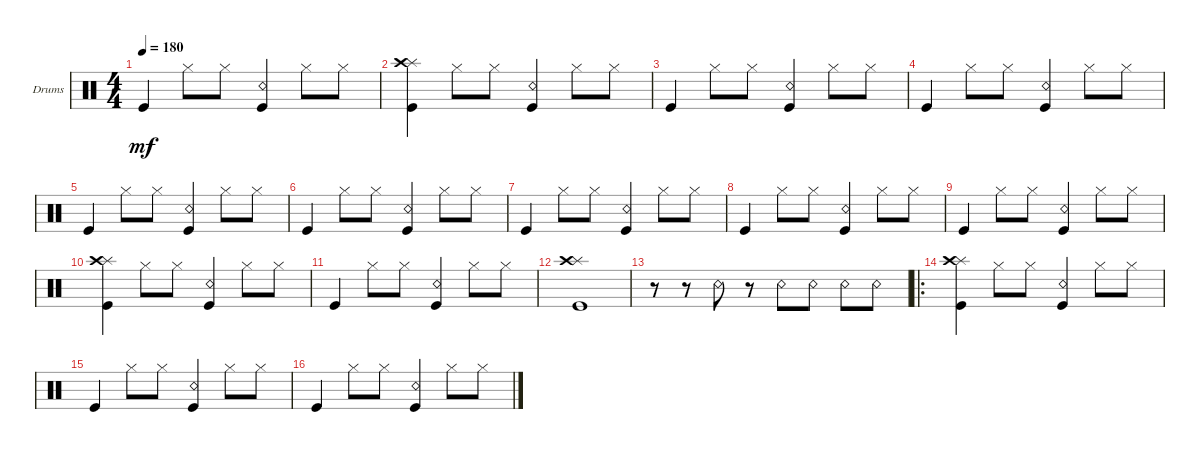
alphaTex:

\defaultSystemsLayout 4
\bracketExtendMode groupsimilarinstruments
\firstSystemTrackNameOrientation horizontal
\otherSystemsTrackNameOrientation horizontal
\track ("Drumkit" "Drums") {instrument percussion}
\staff {score}
\articulation defaults
\ts (4 4)
\tempo 180
\clef neutral
\scale
0.333333
\ks c "Kick (hit)".4{dy mf} "Hi-Hat (closed)".8 "Hi-Hat (closed)".8
("Snare (rim shot)" "Kick (hit)").4 "Hi-Hat (closed)".8 "Hi-Hat (closed)".8 |
\scale
0.333333 ("Kick (hit)" "Splash (hit)" "Crash high (hit)").4 "Hi-Hat (closed)".8 "Hi-Hat (closed)".8 ("Snare (rim shot)" "Kick (hit)").4 "Hi-Hat (closed)".8 "Hi-Hat (closed)".8 |
\scale
0.333333 "Kick (hit)".4 "Hi-Hat (closed)".8 "Hi-Hat (closed)".8 ("Snare (rim shot)" "Kick (hit)").4 "Hi-Hat (closed)".8 "Hi-Hat (closed)".8 |
\scale
0.333333 "Kick (hit)".4 "Hi-Hat (closed)".8 "Hi-Hat (closed)".8 ("Snare (rim shot)" "Kick (hit)").4 "Hi-Hat (closed)".8 "Hi-Hat (closed)".8 |
\scale
0.333333 "Kick (hit)".4 "Hi-Hat (closed)".8 "Hi-Hat (closed)".8 ("Snare (rim shot)" "Kick (hit)").4 "Hi-Hat (closed)".8 "Hi-Hat (closed)".8 |
\scale
0.333333 "Kick (hit)".4 "Hi-Hat (closed)".8 "Hi-Hat (closed)".8 ("Snare (rim shot)" "Kick (hit)").4 "Hi-Hat (closed)".8 "Hi-Hat (closed)".8 |
\scale
0.333333 "Kick (hit)".4 "Hi-Hat (closed)".8 "Hi-Hat (closed)".8 ("Snare (rim shot)" "Kick (hit)").4 "Hi-Hat (closed)".8 "Hi-Hat (closed)".8 |
\scale
0.333333 "Kick (hit)".4 "Hi-Hat (closed)".8 "Hi-Hat (closed)".8 ("Snare (rim shot)" "Kick (hit)").4 "Hi-Hat (closed)".8 "Hi-Hat (closed)".8 |
\scale
0.333333 "Kick (hit)".4 "Hi-Hat (closed)".8 "Hi-Hat (closed)".8 ("Snare (rim shot)" "Kick (hit)").4 "Hi-Hat (closed)".8 "Hi-Hat (closed)".8 |
\scale
0.333333 ("Kick (hit)" "Splash (hit)" "Crash high (hit)").4 "Hi-Hat (closed)".8 "Hi-Hat (closed)".8 ("Snare (rim shot)" "Kick (hit)").4 "Hi-Hat (closed)".8 "Hi-Hat (closed)".8 |
\scale
0.333333 "Kick (hit)".4 "Hi-Hat (closed)".8 "Hi-Hat (closed)".8 ("Snare (rim shot)" "Kick (hit)").4 "Hi-Hat (closed)".8 "Hi-Hat (closed)".8 |
\scale
0.311475 ("Kick (hit)" "Splash (hit)" "Crash high (hit)").1 |
\scale
0.311475 r.8 r.8 "Snare (rim shot)".8 r.8 "Snare (rim shot)".8 "Snare (rim shot)".8 "Snare (rim shot)".8 "Snare (rim shot)".8 |
\ro
\scale
0.377049 ("Kick (hit)" "Splash (hit)" "Crash high (hit)").4 "Hi-Hat (closed)".8 "Hi-Hat (closed)".8 ("Snare (rim shot)" "Kick (hit)").4 "Hi-Hat (closed)".8 "Hi-Hat (closed)".8 |
\scale
0.333333 "Kick (hit)".4 "Hi-Hat (closed)".8 "Hi-Hat (closed)".8 ("Snare (rim shot)" "Kick (hit)").4 "Hi-Hat (closed)".8 "Hi-Hat (closed)".8 |
\scale
0.333333 "Kick (hit)".4 "Hi-Hat (closed)".8 "Hi-Hat (closed)".8 ("Snare (rim shot)" "Kick (hit)").4 "Hi-Hat (closed)".8 "Hi-Hat (closed)".8
